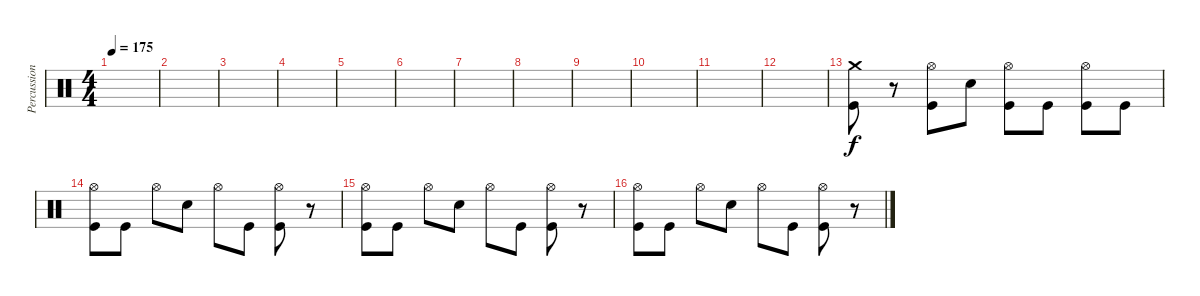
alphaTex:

\track ("Percussions" "Percussion") {instrument percussion}
\staff {score}
\articulation defaults
\ts (4 4)
\tempo 175
\clef neutral
\ks c
|
|
|
|
|
|
|
|
|
|
|
|
("Crash medium (hit)" "Kick (hit)").8{dy f} r.8 ("Hi-Hat (open)" "Kick (hit)").8 "Snare (hit) 2".8 ("Hi-Hat (open)" "Kick (hit)").8 "Kick (hit)".8 ("Hi-Hat (open)" "Kick (hit)").8 "Kick (hit)".8 |
("Hi-Hat (open)" "Kick (hit)").8 "Kick (hit)".8 "Hi-Hat (open)".8 "Snare (hit) 2".8 "Hi-Hat (open)".8 "Kick (hit)".8 ("Hi-Hat (open)" "Kick (hit)").8 r.8 |
("Hi-Hat (open)" "Kick (hit)").8 "Kick (hit)".8 "Hi-Hat (open)".8 "Snare (hit) 2".8 "Hi-Hat (open)".8 "Kick (hit)".8 ("Hi-Hat (open)" "Kick (hit)").8 r.8 |
("Hi-Hat (open)" "Kick (hit)").8 "Kick (hit)".8 "Hi-Hat (open)".8 "Snare (hit) 2".8 "Hi-Hat (open)".8 "Kick (hit)".8 ("Hi-Hat (open)" "Kick (hit)").8 r.8
